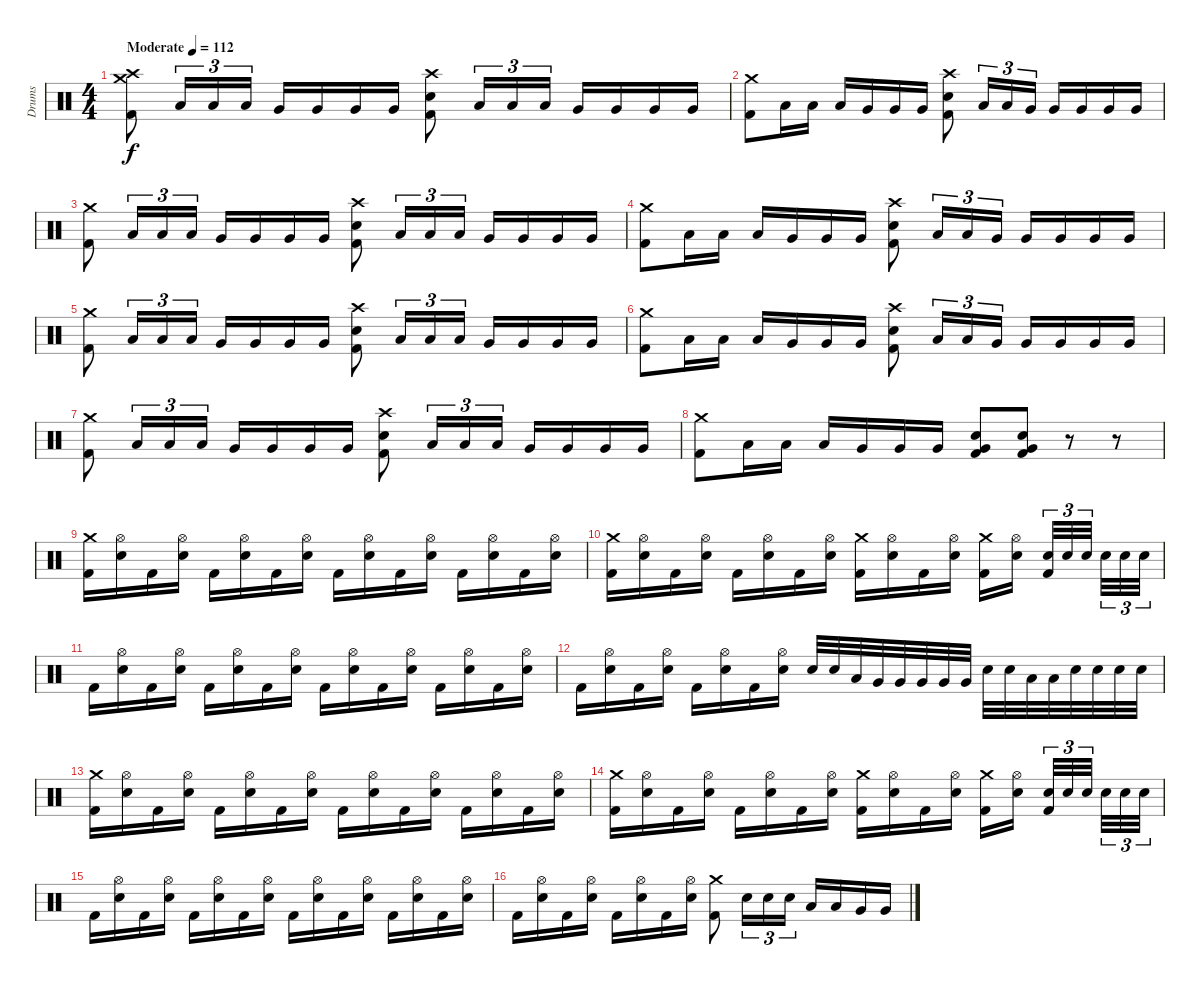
\track ("Drums " "Drums ") {instrument percussion}
\staff {score}
\articulation defaults
\ts (4 4)
\tempo (112 "Moderate")
\clef neutral
\ks c
("Crash high (hit)" "Crash medium (hit)" "Kick (hit) 2").8{dy f} "Low Tom (hit)".16{tu (3 2)} "Low Tom (hit)".16{tu (3 2)} "Low Tom (hit)".16{tu (3 2)} "Very Low Tom (hit)".16 "Very Low Tom (hit)".16 "Very Low Tom (hit)".16 "Very Low Tom (hit)".16 ("Crash high (hit)" "Electric Snare (hit)" "Kick (hit) 2").8 "Low Tom (hit)".16{tu (3 2)} "Low Tom (hit)".16{tu (3 2)} "Low Tom (hit)".16{tu (3 2)} "Very Low Tom (hit)".16 "Very Low Tom (hit)".16 "Very Low Tom (hit)".16 "Very Low Tom (hit)".16 |
("Crash medium (hit)" "Kick (hit) 2").8 "Low Tom (hit)".16 "Low Tom (hit)".16 "Low Tom (hit)".16 "Very Low Tom (hit)".16 "Very Low Tom (hit)".16 "Very Low Tom (hit)".16 ("Crash high (hit)" "Electric Snare (hit)" "Kick (hit) 2").8 "Low Tom (hit)".16{tu (3 2)} "Low Tom (hit)".16{tu (3 2)} "Very Low Tom (hit)".16{tu (3 2)} "Very Low Tom (hit)".16 "Very Low Tom (hit)".16 "Very Low Tom (hit)".16 "Very Low Tom (hit)".16 |
("Crash medium (hit)" "Kick (hit) 2").8 "Low Tom (hit)".16{tu (3 2)} "Low Tom (hit)".16{tu (3 2)} "Low Tom (hit)".16{tu (3 2)} "Very Low Tom (hit)".16 "Very Low Tom (hit)".16 "Very Low Tom (hit)".16 "Very Low Tom (hit)".16 ("Crash high (hit)" "Electric Snare (hit)" "Kick (hit) 2").8 "Low Tom (hit)".16{tu (3 2)} "Low Tom (hit)".16{tu (3 2)} "Low Tom (hit)".16{tu (3 2)} "Very Low Tom (hit)".16 "Very Low Tom (hit)".16 "Very Low Tom (hit)".16 "Very Low Tom (hit)".16 |
("Crash medium (hit)" "Kick (hit) 2").8 "Low Tom (hit)".16 "Low Tom (hit)".16 "Low Tom (hit)".16 "Very Low Tom (hit)".16 "Very Low Tom (hit)".16 "Very Low Tom (hit)".16 ("Crash high (hit)" "Electric Snare (hit)" "Kick (hit) 2").8 "Low Tom (hit)".16{tu (3 2)} "Low Tom (hit)".16{tu (3 2)} "Very Low Tom (hit)".16{tu (3 2)} "Very Low Tom (hit)".16 "Very Low Tom (hit)".16 "Very Low Tom (hit)".16 "Very Low Tom (hit)".16 |
("Crash medium (hit)" "Kick (hit) 2").8 "Low Tom (hit)".16{tu (3 2)} "Low Tom (hit)".16{tu (3 2)} "Low Tom (hit)".16{tu (3 2)} "Very Low Tom (hit)".16 "Very Low Tom (hit)".16 "Very Low Tom (hit)".16 "Very Low Tom (hit)".16 ("Crash high (hit)" "Electric Snare (hit)" "Kick (hit) 2").8 "Low Tom (hit)".16{tu (3 2)} "Low Tom (hit)".16{tu (3 2)} "Low Tom (hit)".16{tu (3 2)} "Very Low Tom (hit)".16 "Very Low Tom (hit)".16 "Very Low Tom (hit)".16 "Very Low Tom (hit)".16 |
("Crash medium (hit)" "Kick (hit) 2").8 "Low Tom (hit)".16 "Low Tom (hit)".16 "Low Tom (hit)".16 "Very Low Tom (hit)".16 "Very Low Tom (hit)".16 "Very Low Tom (hit)".16 ("Crash high (hit)" "Electric Snare (hit)" "Kick (hit) 2").8 "Low Tom (hit)".16{tu (3 2)} "Low Tom (hit)".16{tu (3 2)} "Very Low Tom (hit)".16{tu (3 2)} "Very Low Tom (hit)".16 "Very Low Tom (hit)".16 "Very Low Tom (hit)".16 "Very Low Tom (hit)".16 |
("Crash medium (hit)" "Kick (hit) 2").8 "Low Tom (hit)".16{tu (3 2)} "Low Tom (hit)".16{tu (3 2)} "Low Tom (hit)".16{tu (3 2)} "Very Low Tom (hit)".16 "Very Low Tom (hit)".16 "Very Low Tom (hit)".16 "Very Low Tom (hit)".16 ("Crash high (hit)" "Electric Snare (hit)" "Kick (hit) 2").8 "Low Tom (hit)".16{tu (3 2)} "Low Tom (hit)".16{tu (3 2)} "Low Tom (hit)".16{tu (3 2)} "Very Low Tom (hit)".16 "Very Low Tom (hit)".16 "Very Low Tom (hit)".16 "Very Low Tom (hit)".16 |
("Crash medium (hit)" "Kick (hit) 2").8 "Low Tom (hit)".16 "Low Tom (hit)".16 "Low Tom (hit)".16 "Very Low Tom (hit)".16 "Very Low Tom (hit)".16 "Very Low Tom (hit)".16 ("Electric Snare (hit)" "Very Low Tom (hit)" "Kick (hit) 2").8 ("Electric Snare (hit)" "Very Low Tom (hit)" "Kick (hit) 2").8 r.8 r.8 |
("Crash medium (hit)" "Kick (hit) 2").16 ("Hi-Hat (open)" "Electric Snare (hit)").16 "Kick (hit) 2".16 ("Hi-Hat (open)" "Electric Snare (hit)").16 "Kick (hit) 2".16 ("Hi-Hat (open)" "Electric Snare (hit)").16 "Kick (hit) 2".16 ("Hi-Hat (open)" "Electric Snare (hit)").16 "Kick (hit) 2".16 ("Hi-Hat (open)" "Electric Snare (hit)").16 "Kick (hit) 2".16 ("Hi-Hat (open)" "Electric Snare (hit)").16 "Kick (hit) 2".16 ("Hi-Hat (open)" "Electric Snare (hit)").16 "Kick (hit) 2".16 ("Hi-Hat (open)" "Electric Snare (hit)").16 |
("Crash medium (hit)" "Kick (hit) 2").16 ("Hi-Hat (open)" "Electric Snare (hit)").16 "Kick (hit) 2".16 ("Hi-Hat (open)" "Electric Snare (hit)").16 "Kick (hit) 2".16 ("Hi-Hat (open)" "Electric Snare (hit)").16 "Kick (hit) 2".16 ("Hi-Hat (open)" "Electric Snare (hit)").16 ("Crash medium (hit)" "Kick (hit) 2").16 ("Hi-Hat (open)" "Electric Snare (hit)").16 "Kick (hit) 2".16 ("Hi-Hat (open)" "Electric Snare (hit)").16 ("Crash medium (hit)" "Kick (hit) 2").16 ("Hi-Hat (open)" "Electric Snare (hit)").16{beam splitsecondary} ("Electric Snare (hit)" "Kick (hit) 2").32{tu (3 2)} "Electric Snare (hit)".32{tu (3 2)} "Electric Snare (hit)".32{tu (3 2) beam splitsecondary} "Electric Snare (hit)".32{tu (3 2)} "Electric Snare (hit)".32{tu (3 2)} "Electric Snare (hit)".32{tu (3 2)} |
"Kick (hit) 2".16 ("Hi-Hat (open)" "Electric Snare (hit)").16 "Kick (hit) 2".16 ("Hi-Hat (open)" "Electric Snare (hit)").16 "Kick (hit) 2".16 ("Hi-Hat (open)" "Electric Snare (hit)").16 "Kick (hit) 2".16 ("Hi-Hat (open)" "Electric Snare (hit)").16 "Kick (hit) 2".16 ("Hi-Hat (open)" "Electric Snare (hit)").16 "Kick (hit) 2".16 ("Hi-Hat (open)" "Electric Snare (hit)").16 "Kick (hit) 2".16 ("Hi-Hat (open)" "Electric Snare (hit)").16 "Kick (hit) 2".16 ("Hi-Hat (open)" "Electric Snare (hit)").16 |
"Kick (hit) 2".16 ("Hi-Hat (open)" "Electric Snare (hit)").16 "Kick (hit) 2".16 ("Hi-Hat (open)" "Electric Snare (hit)").16 "Kick (hit) 2".16 ("Hi-Hat (open)" "Electric Snare (hit)").16 "Kick (hit) 2".16 ("Hi-Hat (open)" "Electric Snare (hit)").16 "Electric Snare (hit)".32 "Electric Snare (hit)".32 "Low Tom (hit)".32 "Very Low Tom (hit)".32 "Very Low Tom (hit)".32 "Very Low Tom (hit)".32 "Very Low Tom (hit)".32 "Very Low Tom (hit)".32 "Electric Snare (hit)".32 "Electric Snare (hit)".32 "Low Tom (hit)".32 "Low Tom (hit)".32 "Electric Snare (hit)".32 "Electric Snare (hit)".32 "Electric Snare (hit)".32 "Electric Snare (hit)".32 |
("Crash medium (hit)" "Kick (hit) 2").16 ("Hi-Hat (open)" "Electric Snare (hit)").16 "Kick (hit) 2".16 ("Hi-Hat (open)" "Electric Snare (hit)").16 "Kick (hit) 2".16 ("Hi-Hat (open)" "Electric Snare (hit)").16 "Kick (hit) 2".16 ("Hi-Hat (open)" "Electric Snare (hit)").16 "Kick (hit) 2".16 ("Hi-Hat (open)" "Electric Snare (hit)").16 "Kick (hit) 2".16 ("Hi-Hat (open)" "Electric Snare (hit)").16 "Kick (hit) 2".16 ("Hi-Hat (open)" "Electric Snare (hit)").16 "Kick (hit) 2".16 ("Hi-Hat (open)" "Electric Snare (hit)").16 |
("Crash medium (hit)" "Kick (hit) 2").16 ("Hi-Hat (open)" "Electric Snare (hit)").16 "Kick (hit) 2".16 ("Hi-Hat (open)" "Electric Snare (hit)").16 "Kick (hit) 2".16 ("Hi-Hat (open)" "Electric Snare (hit)").16 "Kick (hit) 2".16 ("Hi-Hat (open)" "Electric Snare (hit)").16 ("Crash medium (hit)" "Kick (hit) 2").16 ("Hi-Hat (open)" "Electric Snare (hit)").16 "Kick (hit) 2".16 ("Hi-Hat (open)" "Electric Snare (hit)").16 ("Crash medium (hit)" "Kick (hit) 2").16 ("Hi-Hat (open)" "Electric Snare (hit)").16{beam splitsecondary} ("Electric Snare (hit)" "Kick (hit) 2").32{tu (3 2)} "Electric Snare (hit)".32{tu (3 2)} "Electric Snare (hit)".32{tu (3 2) beam splitsecondary} "Electric Snare (hit)".32{tu (3 2)} "Electric Snare (hit)".32{tu (3 2)} "Electric Snare (hit)".32{tu (3 2)} |
"Kick (hit) 2".16 ("Hi-Hat (open)" "Electric Snare (hit)").16 "Kick (hit) 2".16 ("Hi-Hat (open)" "Electric Snare (hit)").16 "Kick (hit) 2".16 ("Hi-Hat (open)" "Electric Snare (hit)").16 "Kick (hit) 2".16 ("Hi-Hat (open)" "Electric Snare (hit)").16 "Kick (hit) 2".16 ("Hi-Hat (open)" "Electric Snare (hit)").16 "Kick (hit) 2".16 ("Hi-Hat (open)" "Electric Snare (hit)").16 "Kick (hit) 2".16 ("Hi-Hat (open)" "Electric Snare (hit)").16 "Kick (hit) 2".16 ("Hi-Hat (open)" "Electric Snare (hit)").16 |
"Kick (hit) 2".16 ("Hi-Hat (open)" "Electric Snare (hit)").16 "Kick (hit) 2".16 ("Hi-Hat (open)" "Electric Snare (hit)").16 "Kick (hit) 2".16 ("Hi-Hat (open)" "Electric Snare (hit)").16 "Kick (hit) 2".16 ("Hi-Hat (open)" "Electric Snare (hit)").16 ("Crash medium (hit)" "Kick (hit) 2").8 "Electric Snare (hit)".16{tu (3 2)} "Electric Snare (hit)".16{tu (3 2)} "Electric Snare (hit)".16{tu (3 2)} "Low Tom (hit)".16 "Low Tom (hit)".16 "Very Low Tom (hit)".16 "Very Low Tom (hit)".16
